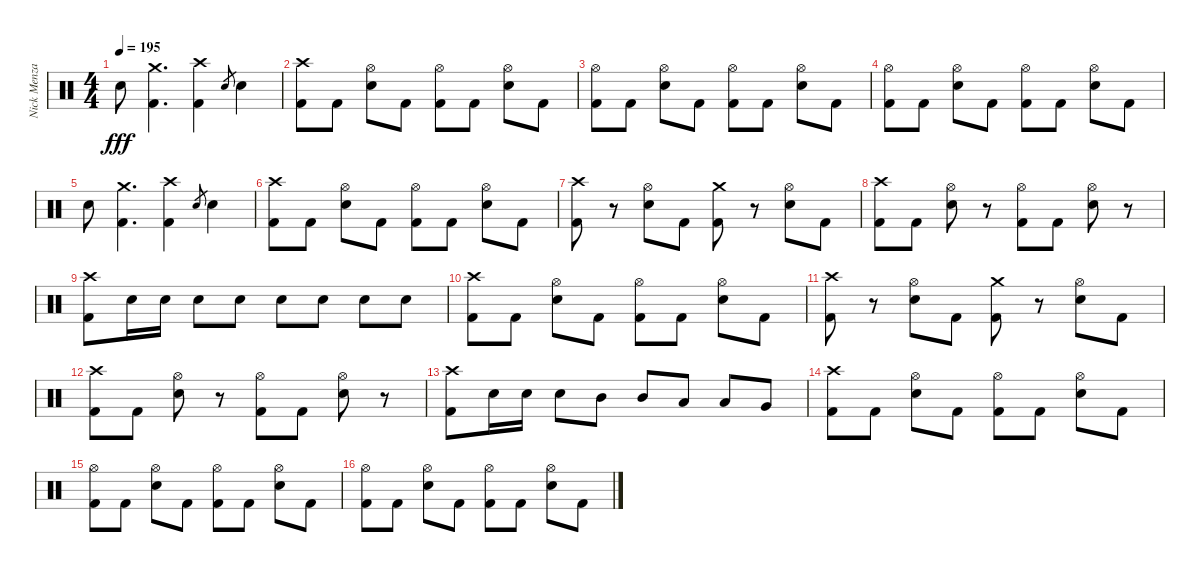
\track ("Nick Menza (Drums)" "Nick Menza") {instrument percussion}
\staff {score}
\articulation defaults
\ts (4 4)
\tempo 195
\clef neutral
\ks c "Electric Snare (hit)".8{dy fff}
("Kick (hit) 2" "Crash medium (hit)").4{d} ("Kick (hit) 2" "Crash high (hit)").4 "Electric Snare (hit)".8{gr} "Electric Snare (hit)".4 |
("Kick (hit) 2" "Crash high (hit)").8 "Kick (hit) 2".8 ("Electric Snare (hit)" "Hi-Hat (open)").8 "Kick (hit) 2".8 ("Kick (hit) 2" "Hi-Hat (open)").8 "Kick (hit) 2".8 ("Electric Snare (hit)" "Hi-Hat (open)").8 "Kick (hit) 2".8 |
("Kick (hit) 2" "Hi-Hat (open)").8 "Kick (hit) 2".8 ("Electric Snare (hit)" "Hi-Hat (open)").8 "Kick (hit) 2".8 ("Kick (hit) 2" "Hi-Hat (open)").8 "Kick (hit) 2".8 ("Electric Snare (hit)" "Hi-Hat (open)").8 "Kick (hit) 2".8 |
("Kick (hit) 2" "Hi-Hat (open)").8 "Kick (hit) 2".8 ("Electric Snare (hit)" "Hi-Hat (open)").8 "Kick (hit) 2".8 ("Kick (hit) 2" "Hi-Hat (open)").8 "Kick (hit) 2".8 ("Electric Snare (hit)" "Hi-Hat (open)").8 "Kick (hit) 2".8 |
"Electric Snare (hit)".8 ("Kick (hit) 2" "Crash medium (hit)").4{d} ("Kick (hit) 2" "Crash high (hit)").4 "Electric Snare (hit)".8{gr} "Electric Snare (hit)".4 |
("Kick (hit) 2" "Crash high (hit)").8 "Kick (hit) 2".8 ("Electric Snare (hit)" "Hi-Hat (open)").8 "Kick (hit) 2".8 ("Kick (hit) 2" "Hi-Hat (open)").8 "Kick (hit) 2".8 ("Electric Snare (hit)" "Hi-Hat (open)").8 "Kick (hit) 2".8 |
("Kick (hit) 2" "Crash high (hit)").8 r.8 ("Electric Snare (hit)" "Hi-Hat (open)").8 "Kick (hit) 2".8 ("Kick (hit) 2" "Crash medium (hit)").8 r.8 ("Electric Snare (hit)" "Hi-Hat (open)").8 "Kick (hit) 2".8 |
("Kick (hit) 2" "Crash high (hit)").8 "Kick (hit) 2".8 ("Electric Snare (hit)" "Hi-Hat (open)").8 r.8 ("Kick (hit) 2" "Hi-Hat (open)").8 "Kick (hit) 2".8 ("Electric Snare (hit)" "Hi-Hat (open)").8 r.8 |
("Kick (hit) 2" "Crash high (hit)").8 "Electric Snare (hit)".16 "Electric Snare (hit)".16 "Electric Snare (hit)".8 "Electric Snare (hit)".8 "Electric Snare (hit)".8 "Electric Snare (hit)".8 "Electric Snare (hit)".8 "Electric Snare (hit)".8 |
("Kick (hit) 2" "Crash high (hit)").8 "Kick (hit) 2".8 ("Electric Snare (hit)" "Hi-Hat (open)").8 "Kick (hit) 2".8 ("Kick (hit) 2" "Hi-Hat (open)").8 "Kick (hit) 2".8 ("Electric Snare (hit)" "Hi-Hat (open)").8 "Kick (hit) 2".8 |
("Kick (hit) 2" "Crash high (hit)").8 r.8 ("Electric Snare (hit)" "Hi-Hat (open)").8 "Kick (hit) 2".8 ("Kick (hit) 2" "Crash medium (hit)").8 r.8 ("Electric Snare (hit)" "Hi-Hat (open)").8 "Kick (hit) 2".8 |
("Kick (hit) 2" "Crash high (hit)").8 "Kick (hit) 2".8 ("Electric Snare (hit)" "Hi-Hat (open)").8 r.8 ("Kick (hit) 2" "Hi-Hat (open)").8 "Kick (hit) 2".8 ("Electric Snare (hit)" "Hi-Hat (open)").8 r.8 |
("Kick (hit) 2" "Crash high (hit)").8 "Electric Snare (hit)".16 "Electric Snare (hit)".16 "Electric Snare (hit)".8 "Mid Tom (hit)".8 "Mid Tom (hit)".8 "Low Tom (hit)".8 "Low Tom (hit)".8 "Very Low Tom (hit)".8 |
("Kick (hit) 2" "Crash high (hit)").8 "Kick (hit) 2".8 ("Electric Snare (hit)" "Hi-Hat (open)").8 "Kick (hit) 2".8 ("Kick (hit) 2" "Hi-Hat (open)").8 "Kick (hit) 2".8 ("Electric Snare (hit)" "Hi-Hat (open)").8 "Kick (hit) 2".8 |
("Kick (hit) 2" "Hi-Hat (open)").8 "Kick (hit) 2".8 ("Electric Snare (hit)" "Hi-Hat (open)").8 "Kick (hit) 2".8 ("Kick (hit) 2" "Hi-Hat (open)").8 "Kick (hit) 2".8 ("Electric Snare (hit)" "Hi-Hat (open)").8 "Kick (hit) 2".8 |
("Kick (hit) 2" "Hi-Hat (open)").8 "Kick (hit) 2".8 ("Electric Snare (hit)" "Hi-Hat (open)").8 "Kick (hit) 2".8 ("Kick (hit) 2" "Hi-Hat (open)").8 "Kick (hit) 2".8 ("Electric Snare (hit)" "Hi-Hat (open)").8 "Kick (hit) 2".8
